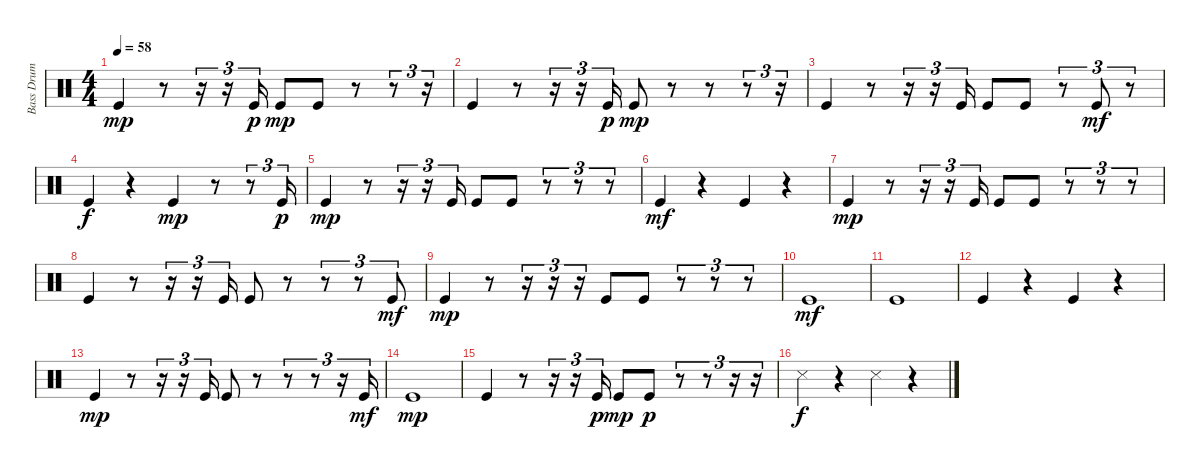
\track ("Bass Drum" "Bass Drum") {instrument percussion}
\staff {score}
\articulation defaults
\ts (4 4)
\tempo 58
\clef neutral
\ks c "Kick (hit)".4{dy mp}
r.8 r.16{tu (3 2)} r.16{tu (3 2)} "Kick (hit)".16{tu (3 2) dy p} "Kick (hit)".8{dy mp} "Kick (hit)".8 r.8 r.8{tu (3 2)} r.16{tu (3 2)} |
"Kick (hit)".4 r.8 r.16{tu (3 2)} r.16{tu (3 2)} "Kick (hit)".16{tu (3 2) dy p} "Kick (hit)".8{dy mp} r.8 r.8 r.8{tu (3 2)} r.16{tu (3 2)} |
"Kick (hit)".4 r.8 r.16{tu (3 2)} r.16{tu (3 2)} "Kick (hit)".16{tu (3 2)} "Kick (hit)".8 "Kick (hit)".8 r.8{tu (3 2)} "Kick (hit)".8{tu (3 2) dy mf} r.8{tu (3 2)} |
"Kick (hit)".4{dy f} r.4 "Kick (hit)".4{dy mp} r.8 r.8{tu (3 2)} "Kick (hit)".16{tu (3 2) dy p} |
"Kick (hit)".4{dy mp} r.8 r.16{tu (3 2)} r.16{tu (3 2)} "Kick (hit)".16{tu (3 2)} "Kick (hit)".8 "Kick (hit)".8 r.8{tu (3 2)} r.8{tu (3 2)} r.8{tu (3 2)} |
"Kick (hit)".4{dy mf} r.4 "Kick (hit)".4 r.4 |
"Kick (hit)".4{dy mp} r.8 r.16{tu (3 2)} r.16{tu (3 2)} "Kick (hit)".16{tu (3 2)} "Kick (hit)".8 "Kick (hit)".8 r.8{tu (3 2)} r.8{tu (3 2)} r.8{tu (3 2)} |
"Kick (hit)".4 r.8 r.16{tu (3 2)} r.16{tu (3 2)} "Kick (hit)".16{tu (3 2)} "Kick (hit)".8 r.8 r.8{tu (3 2)} r.8{tu (3 2)} "Kick (hit)".8{tu (3 2) dy mf} |
"Kick (hit)".4{dy mp} r.8 r.16{tu (3 2)} r.16{tu (3 2)} r.16{tu (3 2)} "Kick (hit)".8 "Kick (hit)".8 r.8{tu (3 2)} r.8{tu (3 2)} r.8{tu (3 2)} |
"Kick (hit)".1{dy mf} |
"Kick (hit)".1 |
"Kick (hit)".4 r.4 "Kick (hit)".4 r.4 |
"Kick (hit)".4{dy mp} r.8 r.16{tu (3 2)} r.16{tu (3 2)} "Kick (hit)".16{tu (3 2)} "Kick (hit)".8 r.8 r.8{tu (3 2)} r.8{tu (3 2)} r.16{tu (3 2)} "Kick (hit)".16{tu (3 2) dy mf} |
"Kick (hit)".1{dy mp} |
"Kick (hit)".4 r.8 r.16{tu (3 2)} r.16{tu (3 2)} "Kick (hit)".16{tu (3 2) dy p} "Kick (hit)".8{dy mp} "Kick (hit)".8{dy p} r.8{tu (3 2)} r.8{tu (3 2)} r.16{tu (3 2)} r.16{tu (3 2)} |
"Snare (side stick) 3".4{dy f} r.4 "Snare (side stick) 3".4 r.4
